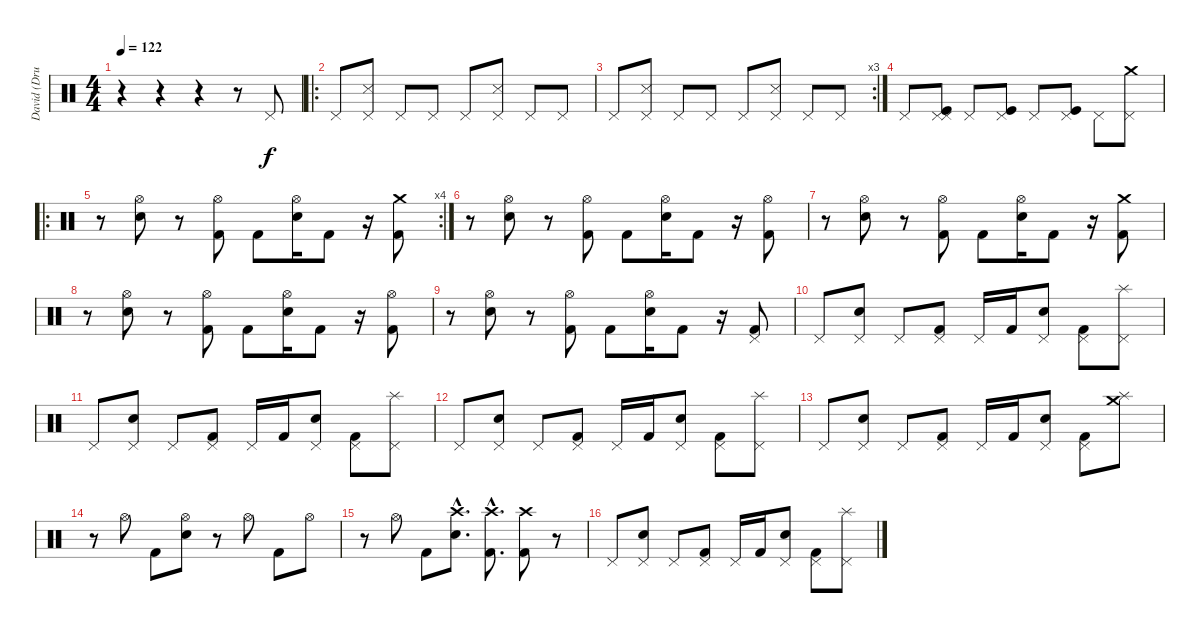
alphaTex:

\track ("David (Drums)" "David (Dru") {instrument percussion}
\staff {score}
\articulation defaults
\ts (4 4)
\tempo 122
\clef neutral
\ks c
r.4{dy f} r.4 r.4 r.8 "Pedal Hi-Hat (hit)".8 |
\ro "Pedal Hi-Hat (hit)".8
("Pedal Hi-Hat (hit)" "Snare (side stick) 3").8 "Pedal Hi-Hat (hit)".8 "Pedal Hi-Hat (hit)".8 "Pedal Hi-Hat (hit)".8 ("Pedal Hi-Hat (hit)" "Snare (side stick) 3").8 "Pedal Hi-Hat (hit)".8 "Pedal Hi-Hat (hit)".8 |
\rc 3 "Pedal Hi-Hat (hit)".8
("Pedal Hi-Hat (hit)" "Snare (side stick) 3").8 "Pedal Hi-Hat (hit)".8 "Pedal Hi-Hat (hit)".8 "Pedal Hi-Hat (hit)".8 ("Pedal Hi-Hat (hit)" "Snare (side stick) 3").8 "Pedal Hi-Hat (hit)".8 "Pedal Hi-Hat (hit)".8 |
"Pedal Hi-Hat (hit)".8 ("Kick (hit)" "Pedal Hi-Hat (hit)" "Pedal Hi-Hat (hit)").8 "Pedal Hi-Hat (hit)".8 ("Kick (hit)" "Pedal Hi-Hat (hit)").8 "Pedal Hi-Hat (hit)".8 ("Kick (hit)" "Pedal Hi-Hat (hit)").8 "Pedal Hi-Hat (hit)".8 ("Crash medium (hit)" "Pedal Hi-Hat (hit)").8 |
\ro
\rc 4
r.8 ("Hi-Hat (open)" "Electric Snare (hit)").8 r.8 ("Hi-Hat (open)" "Kick (hit) 2").8 "Kick (hit) 2".8 ("Hi-Hat (open)" "Electric Snare (hit)").16 "Kick (hit) 2".8 r.16 ("Crash medium (hit)" "Kick (hit) 2").8 |
r.8 ("Hi-Hat (open)" "Electric Snare (hit)").8 r.8 ("Hi-Hat (open)" "Kick (hit) 2").8 "Kick (hit) 2".8 ("Hi-Hat (open)" "Electric Snare (hit)").16 "Kick (hit) 2".8 r.16 ("Hi-Hat (open)" "Kick (hit) 2").8 |
r.8 ("Hi-Hat (open)" "Electric Snare (hit)").8 r.8 ("Hi-Hat (open)" "Kick (hit) 2").8 "Kick (hit) 2".8 ("Hi-Hat (open)" "Electric Snare (hit)").16 "Kick (hit) 2".8 r.16 ("Crash medium (hit)" "Kick (hit) 2").8 |
r.8 ("Hi-Hat (open)" "Electric Snare (hit)").8 r.8 ("Hi-Hat (open)" "Kick (hit) 2").8 "Kick (hit) 2".8 ("Hi-Hat (open)" "Electric Snare (hit)").16 "Kick (hit) 2".8 r.16 ("Hi-Hat (open)" "Kick (hit) 2").8 |
r.8 ("Hi-Hat (open)" "Electric Snare (hit)").8 r.8 ("Hi-Hat (open)" "Kick (hit) 2").8 "Kick (hit) 2".8 ("Hi-Hat (open)" "Electric Snare (hit)").16 "Kick (hit) 2".8 r.16 ("Pedal Hi-Hat (hit)" "Kick (hit) 2").8 |
"Pedal Hi-Hat (hit)".8 ("Pedal Hi-Hat (hit)" "Electric Snare (hit)").8 "Pedal Hi-Hat (hit)".8 ("Pedal Hi-Hat (hit)" "Kick (hit) 2").8 "Pedal Hi-Hat (hit)".16 "Kick (hit) 2".16 ("Pedal Hi-Hat (hit)" "Electric Snare (hit)").8 ("Pedal Hi-Hat (hit)" "Kick (hit) 2").8 ("Pedal Hi-Hat (hit)" "Splash (hit)").8 |
"Pedal Hi-Hat (hit)".8 ("Pedal Hi-Hat (hit)" "Electric Snare (hit)").8 "Pedal Hi-Hat (hit)".8 ("Pedal Hi-Hat (hit)" "Kick (hit) 2").8 "Pedal Hi-Hat (hit)".16 "Kick (hit) 2".16 ("Pedal Hi-Hat (hit)" "Electric Snare (hit)").8 ("Pedal Hi-Hat (hit)" "Kick (hit) 2").8 ("Pedal Hi-Hat (hit)" "Splash (hit)").8 |
"Pedal Hi-Hat (hit)".8 ("Pedal Hi-Hat (hit)" "Electric Snare (hit)").8 "Pedal Hi-Hat (hit)".8 ("Pedal Hi-Hat (hit)" "Kick (hit) 2").8 "Pedal Hi-Hat (hit)".16 "Kick (hit) 2".16 ("Pedal Hi-Hat (hit)" "Electric Snare (hit)").8 ("Pedal Hi-Hat (hit)" "Kick (hit) 2").8 ("Pedal Hi-Hat (hit)" "Splash (hit)").8 |
"Pedal Hi-Hat (hit)".8 ("Pedal Hi-Hat (hit)" "Electric Snare (hit)").8 "Pedal Hi-Hat (hit)".8 ("Pedal Hi-Hat (hit)" "Kick (hit) 2").8 "Pedal Hi-Hat (hit)".16 "Kick (hit) 2".16 ("Pedal Hi-Hat (hit)" "Electric Snare (hit)").8 ("Pedal Hi-Hat (hit)" "Kick (hit) 2").8 ("Crash medium (hit)" "Splash (hit)").8 |
r.8 "Hi-Hat (open)".8 "Kick (hit) 2".8 ("Hi-Hat (open)" "Electric Snare (hit)").8 r.8 "Hi-Hat (open)".8 "Kick (hit) 2".8 "Hi-Hat (open)".8 |
r.8 "Hi-Hat (open)".8 "Kick (hit) 2".8 ("Crash high (hit)"{hac} "Electric Snare (hit)"{hac}).8{d} ("Crash high (hit)"{hac} "Kick (hit) 2"{hac}).8{d} ("Crash high (hit)" "Kick (hit) 2").8 r.8 |
"Pedal Hi-Hat (hit)".8 ("Pedal Hi-Hat (hit)" "Electric Snare (hit)").8 "Pedal Hi-Hat (hit)".8 ("Pedal Hi-Hat (hit)" "Kick (hit) 2").8 "Pedal Hi-Hat (hit)".16 "Kick (hit) 2".16 ("Pedal Hi-Hat (hit)" "Electric Snare (hit)").8 ("Pedal Hi-Hat (hit)" "Kick (hit) 2").8 ("Pedal Hi-Hat (hit)" "Splash (hit)").8
